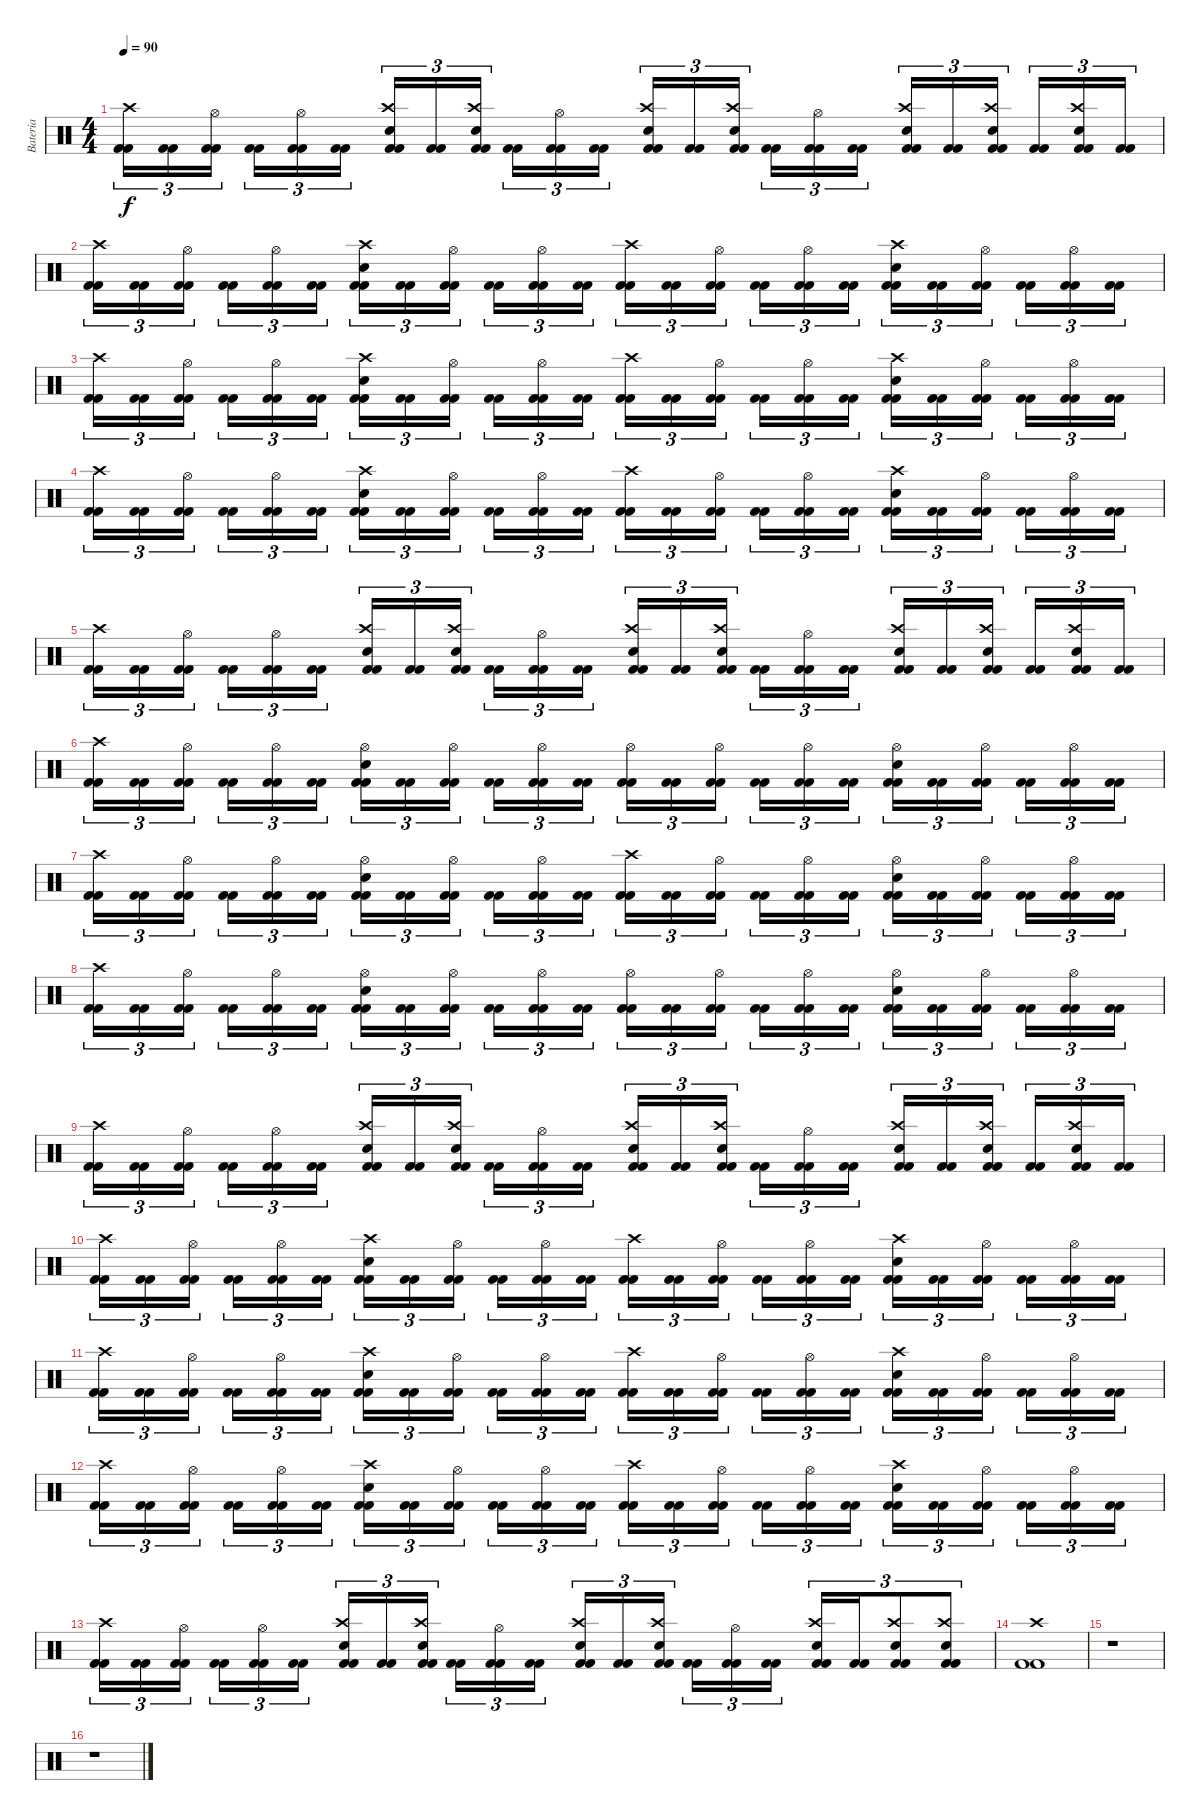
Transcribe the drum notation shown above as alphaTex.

\track ("Bateria" "Bateria") {instrument percussion}
\staff {score}
\articulation defaults
\ts (4 4)
\tempo 90
\clef neutral
\ks c
("Kick (hit) 2" "Kick (hit) 2" "Crash high (hit)").16{tu (3 2) dy f} ("Kick (hit) 2" "Kick (hit) 2").16{tu (3 2)} ("Kick (hit) 2" "Kick (hit) 2" "Hi-Hat (open)").16{tu (3 2)} ("Kick (hit) 2" "Kick (hit) 2").16{tu (3 2)} ("Kick (hit) 2" "Kick (hit) 2" "Hi-Hat (open)").16{tu (3 2)} ("Kick (hit) 2" "Kick (hit) 2").16{tu (3 2)} ("Kick (hit) 2" "Kick (hit) 2" "Snare (hit) 2" "Crash high (hit)").16{tu (3 2)} ("Kick (hit) 2" "Kick (hit) 2").16{tu (3 2)} ("Kick (hit) 2" "Kick (hit) 2" "Snare (hit) 2" "Crash high (hit)").16{tu (3 2)} ("Kick (hit) 2" "Kick (hit) 2").16{tu (3 2)} ("Kick (hit) 2" "Kick (hit) 2" "Hi-Hat (open)").16{tu (3 2)} ("Kick (hit) 2" "Kick (hit) 2").16{tu (3 2)} ("Kick (hit) 2" "Kick (hit) 2" "Snare (hit) 2" "Crash high (hit)").16{tu (3 2)} ("Kick (hit) 2" "Kick (hit) 2").16{tu (3 2)} ("Kick (hit) 2" "Kick (hit) 2" "Snare (hit) 2" "Crash high (hit)").16{tu (3 2)} ("Kick (hit) 2" "Kick (hit) 2").16{tu (3 2)} ("Kick (hit) 2" "Kick (hit) 2" "Hi-Hat (open)").16{tu (3 2)} ("Kick (hit) 2" "Kick (hit) 2").16{tu (3 2)} ("Kick (hit) 2" "Kick (hit) 2" "Snare (hit) 2" "Crash high (hit)").16{tu (3 2)} ("Kick (hit) 2" "Kick (hit) 2").16{tu (3 2)} ("Kick (hit) 2" "Kick (hit) 2" "Snare (hit) 2" "Crash high (hit)").16{tu (3 2)} ("Kick (hit) 2" "Kick (hit) 2").16{tu (3 2)} ("Kick (hit) 2" "Kick (hit) 2" "Snare (hit) 2" "Crash high (hit)").16{tu (3 2)} ("Kick (hit) 2" "Kick (hit) 2").16{tu (3 2)} |
("Kick (hit) 2" "Kick (hit) 2" "Crash high (hit)").16{tu (3 2)} ("Kick (hit) 2" "Kick (hit) 2").16{tu (3 2)} ("Kick (hit) 2" "Kick (hit) 2" "Hi-Hat (open)").16{tu (3 2)} ("Kick (hit) 2" "Kick (hit) 2").16{tu (3 2)} ("Kick (hit) 2" "Kick (hit) 2" "Hi-Hat (open)").16{tu (3 2)} ("Kick (hit) 2" "Kick (hit) 2").16{tu (3 2)} ("Kick (hit) 2" "Kick (hit) 2" "Snare (hit) 2" "Crash high (hit)").16{tu (3 2)} ("Kick (hit) 2" "Kick (hit) 2").16{tu (3 2)} ("Kick (hit) 2" "Kick (hit) 2" "Hi-Hat (open)").16{tu (3 2)} ("Kick (hit) 2" "Kick (hit) 2").16{tu (3 2)} ("Kick (hit) 2" "Kick (hit) 2" "Hi-Hat (open)").16{tu (3 2)} ("Kick (hit) 2" "Kick (hit) 2").16{tu (3 2)} ("Kick (hit) 2" "Kick (hit) 2" "Crash high (hit)").16{tu (3 2)} ("Kick (hit) 2" "Kick (hit) 2").16{tu (3 2)} ("Kick (hit) 2" "Kick (hit) 2" "Hi-Hat (open)").16{tu (3 2)} ("Kick (hit) 2" "Kick (hit) 2").16{tu (3 2)} ("Kick (hit) 2" "Kick (hit) 2" "Hi-Hat (open)").16{tu (3 2)} ("Kick (hit) 2" "Kick (hit) 2").16{tu (3 2)} ("Kick (hit) 2" "Kick (hit) 2" "Snare (hit) 2" "Crash high (hit)").16{tu (3 2)} ("Kick (hit) 2" "Kick (hit) 2").16{tu (3 2)} ("Kick (hit) 2" "Kick (hit) 2" "Hi-Hat (open)").16{tu (3 2)} ("Kick (hit) 2" "Kick (hit) 2").16{tu (3 2)} ("Kick (hit) 2" "Kick (hit) 2" "Hi-Hat (open)").16{tu (3 2)} ("Kick (hit) 2" "Kick (hit) 2").16{tu (3 2)} |
("Kick (hit) 2" "Kick (hit) 2" "Crash high (hit)").16{tu (3 2)} ("Kick (hit) 2" "Kick (hit) 2").16{tu (3 2)} ("Kick (hit) 2" "Kick (hit) 2" "Hi-Hat (open)").16{tu (3 2)} ("Kick (hit) 2" "Kick (hit) 2").16{tu (3 2)} ("Kick (hit) 2" "Kick (hit) 2" "Hi-Hat (open)").16{tu (3 2)} ("Kick (hit) 2" "Kick (hit) 2").16{tu (3 2)} ("Kick (hit) 2" "Kick (hit) 2" "Snare (hit) 2" "Crash high (hit)").16{tu (3 2)} ("Kick (hit) 2" "Kick (hit) 2").16{tu (3 2)} ("Kick (hit) 2" "Kick (hit) 2" "Hi-Hat (open)").16{tu (3 2)} ("Kick (hit) 2" "Kick (hit) 2").16{tu (3 2)} ("Kick (hit) 2" "Kick (hit) 2" "Hi-Hat (open)").16{tu (3 2)} ("Kick (hit) 2" "Kick (hit) 2").16{tu (3 2)} ("Kick (hit) 2" "Kick (hit) 2" "Crash high (hit)").16{tu (3 2)} ("Kick (hit) 2" "Kick (hit) 2").16{tu (3 2)} ("Kick (hit) 2" "Kick (hit) 2" "Hi-Hat (open)").16{tu (3 2)} ("Kick (hit) 2" "Kick (hit) 2").16{tu (3 2)} ("Kick (hit) 2" "Kick (hit) 2" "Hi-Hat (open)").16{tu (3 2)} ("Kick (hit) 2" "Kick (hit) 2").16{tu (3 2)} ("Kick (hit) 2" "Kick (hit) 2" "Snare (hit) 2" "Crash high (hit)").16{tu (3 2)} ("Kick (hit) 2" "Kick (hit) 2").16{tu (3 2)} ("Kick (hit) 2" "Kick (hit) 2" "Hi-Hat (open)").16{tu (3 2)} ("Kick (hit) 2" "Kick (hit) 2").16{tu (3 2)} ("Kick (hit) 2" "Kick (hit) 2" "Hi-Hat (open)").16{tu (3 2)} ("Kick (hit) 2" "Kick (hit) 2").16{tu (3 2)} |
("Kick (hit) 2" "Kick (hit) 2" "Crash high (hit)").16{tu (3 2)} ("Kick (hit) 2" "Kick (hit) 2").16{tu (3 2)} ("Kick (hit) 2" "Kick (hit) 2" "Hi-Hat (open)").16{tu (3 2)} ("Kick (hit) 2" "Kick (hit) 2").16{tu (3 2)} ("Kick (hit) 2" "Kick (hit) 2" "Hi-Hat (open)").16{tu (3 2)} ("Kick (hit) 2" "Kick (hit) 2").16{tu (3 2)} ("Kick (hit) 2" "Kick (hit) 2" "Snare (hit) 2" "Crash high (hit)").16{tu (3 2)} ("Kick (hit) 2" "Kick (hit) 2").16{tu (3 2)} ("Kick (hit) 2" "Kick (hit) 2" "Hi-Hat (open)").16{tu (3 2)} ("Kick (hit) 2" "Kick (hit) 2").16{tu (3 2)} ("Kick (hit) 2" "Kick (hit) 2" "Hi-Hat (open)").16{tu (3 2)} ("Kick (hit) 2" "Kick (hit) 2").16{tu (3 2)} ("Kick (hit) 2" "Kick (hit) 2" "Crash high (hit)").16{tu (3 2)} ("Kick (hit) 2" "Kick (hit) 2").16{tu (3 2)} ("Kick (hit) 2" "Kick (hit) 2" "Hi-Hat (open)").16{tu (3 2)} ("Kick (hit) 2" "Kick (hit) 2").16{tu (3 2)} ("Kick (hit) 2" "Kick (hit) 2" "Hi-Hat (open)").16{tu (3 2)} ("Kick (hit) 2" "Kick (hit) 2").16{tu (3 2)} ("Kick (hit) 2" "Kick (hit) 2" "Snare (hit) 2" "Crash high (hit)").16{tu (3 2)} ("Kick (hit) 2" "Kick (hit) 2").16{tu (3 2)} ("Kick (hit) 2" "Kick (hit) 2" "Hi-Hat (open)").16{tu (3 2)} ("Kick (hit) 2" "Kick (hit) 2").16{tu (3 2)} ("Kick (hit) 2" "Kick (hit) 2" "Hi-Hat (open)").16{tu (3 2)} ("Kick (hit) 2" "Kick (hit) 2").16{tu (3 2)} |
("Kick (hit) 2" "Kick (hit) 2" "Crash high (hit)").16{tu (3 2)} ("Kick (hit) 2" "Kick (hit) 2").16{tu (3 2)} ("Kick (hit) 2" "Kick (hit) 2" "Hi-Hat (open)").16{tu (3 2)} ("Kick (hit) 2" "Kick (hit) 2").16{tu (3 2)} ("Kick (hit) 2" "Kick (hit) 2" "Hi-Hat (open)").16{tu (3 2)} ("Kick (hit) 2" "Kick (hit) 2").16{tu (3 2)} ("Kick (hit) 2" "Kick (hit) 2" "Snare (hit) 2" "Crash high (hit)").16{tu (3 2)} ("Kick (hit) 2" "Kick (hit) 2").16{tu (3 2)} ("Kick (hit) 2" "Kick (hit) 2" "Snare (hit) 2" "Crash high (hit)").16{tu (3 2)} ("Kick (hit) 2" "Kick (hit) 2").16{tu (3 2)} ("Kick (hit) 2" "Kick (hit) 2" "Hi-Hat (open)").16{tu (3 2)} ("Kick (hit) 2" "Kick (hit) 2").16{tu (3 2)} ("Kick (hit) 2" "Kick (hit) 2" "Snare (hit) 2" "Crash high (hit)").16{tu (3 2)} ("Kick (hit) 2" "Kick (hit) 2").16{tu (3 2)} ("Kick (hit) 2" "Kick (hit) 2" "Snare (hit) 2" "Crash high (hit)").16{tu (3 2)} ("Kick (hit) 2" "Kick (hit) 2").16{tu (3 2)} ("Kick (hit) 2" "Kick (hit) 2" "Hi-Hat (open)").16{tu (3 2)} ("Kick (hit) 2" "Kick (hit) 2").16{tu (3 2)} ("Kick (hit) 2" "Kick (hit) 2" "Snare (hit) 2" "Crash high (hit)").16{tu (3 2)} ("Kick (hit) 2" "Kick (hit) 2").16{tu (3 2)} ("Kick (hit) 2" "Kick (hit) 2" "Snare (hit) 2" "Crash high (hit)").16{tu (3 2)} ("Kick (hit) 2" "Kick (hit) 2").16{tu (3 2)} ("Kick (hit) 2" "Kick (hit) 2" "Snare (hit) 2" "Crash high (hit)").16{tu (3 2)} ("Kick (hit) 2" "Kick (hit) 2").16{tu (3 2)} |
("Kick (hit) 2" "Kick (hit) 2" "Crash high (hit)").16{tu (3 2)} ("Kick (hit) 2" "Kick (hit) 2").16{tu (3 2)} ("Kick (hit) 2" "Kick (hit) 2" "Hi-Hat (open)").16{tu (3 2)} ("Kick (hit) 2" "Kick (hit) 2").16{tu (3 2)} ("Kick (hit) 2" "Kick (hit) 2" "Hi-Hat (open)").16{tu (3 2)} ("Kick (hit) 2" "Kick (hit) 2").16{tu (3 2)} ("Kick (hit) 2" "Kick (hit) 2" "Snare (hit) 2" "Hi-Hat (open)").16{tu (3 2)} ("Kick (hit) 2" "Kick (hit) 2").16{tu (3 2)} ("Kick (hit) 2" "Kick (hit) 2" "Hi-Hat (open)").16{tu (3 2)} ("Kick (hit) 2" "Kick (hit) 2").16{tu (3 2)} ("Kick (hit) 2" "Kick (hit) 2" "Hi-Hat (open)").16{tu (3 2)} ("Kick (hit) 2" "Kick (hit) 2").16{tu (3 2)} ("Kick (hit) 2" "Kick (hit) 2" "Hi-Hat (open)").16{tu (3 2)} ("Kick (hit) 2" "Kick (hit) 2").16{tu (3 2)} ("Kick (hit) 2" "Kick (hit) 2" "Hi-Hat (open)").16{tu (3 2)} ("Kick (hit) 2" "Kick (hit) 2").16{tu (3 2)} ("Kick (hit) 2" "Kick (hit) 2" "Hi-Hat (open)").16{tu (3 2)} ("Kick (hit) 2" "Kick (hit) 2").16{tu (3 2)} ("Kick (hit) 2" "Kick (hit) 2" "Snare (hit) 2" "Hi-Hat (open)").16{tu (3 2)} ("Kick (hit) 2" "Kick (hit) 2").16{tu (3 2)} ("Kick (hit) 2" "Kick (hit) 2" "Hi-Hat (open)").16{tu (3 2)} ("Kick (hit) 2" "Kick (hit) 2").16{tu (3 2)} ("Kick (hit) 2" "Kick (hit) 2" "Hi-Hat (open)").16{tu (3 2)} ("Kick (hit) 2" "Kick (hit) 2").16{tu (3 2)} |
("Kick (hit) 2" "Kick (hit) 2" "Crash high (hit)").16{tu (3 2)} ("Kick (hit) 2" "Kick (hit) 2").16{tu (3 2)} ("Kick (hit) 2" "Kick (hit) 2" "Hi-Hat (open)").16{tu (3 2)} ("Kick (hit) 2" "Kick (hit) 2").16{tu (3 2)} ("Kick (hit) 2" "Kick (hit) 2" "Hi-Hat (open)").16{tu (3 2)} ("Kick (hit) 2" "Kick (hit) 2").16{tu (3 2)} ("Kick (hit) 2" "Kick (hit) 2" "Snare (hit) 2" "Hi-Hat (open)").16{tu (3 2)} ("Kick (hit) 2" "Kick (hit) 2").16{tu (3 2)} ("Kick (hit) 2" "Kick (hit) 2" "Hi-Hat (open)").16{tu (3 2)} ("Kick (hit) 2" "Kick (hit) 2").16{tu (3 2)} ("Kick (hit) 2" "Kick (hit) 2" "Hi-Hat (open)").16{tu (3 2)} ("Kick (hit) 2" "Kick (hit) 2").16{tu (3 2)} ("Kick (hit) 2" "Kick (hit) 2" "Crash high (hit)").16{tu (3 2)} ("Kick (hit) 2" "Kick (hit) 2").16{tu (3 2)} ("Kick (hit) 2" "Kick (hit) 2" "Hi-Hat (open)").16{tu (3 2)} ("Kick (hit) 2" "Kick (hit) 2").16{tu (3 2)} ("Kick (hit) 2" "Kick (hit) 2" "Hi-Hat (open)").16{tu (3 2)} ("Kick (hit) 2" "Kick (hit) 2").16{tu (3 2)} ("Kick (hit) 2" "Kick (hit) 2" "Snare (hit) 2" "Hi-Hat (open)").16{tu (3 2)} ("Kick (hit) 2" "Kick (hit) 2").16{tu (3 2)} ("Kick (hit) 2" "Kick (hit) 2" "Hi-Hat (open)").16{tu (3 2)} ("Kick (hit) 2" "Kick (hit) 2").16{tu (3 2)} ("Kick (hit) 2" "Kick (hit) 2" "Hi-Hat (open)").16{tu (3 2)} ("Kick (hit) 2" "Kick (hit) 2").16{tu (3 2)} |
("Kick (hit) 2" "Kick (hit) 2" "Crash high (hit)").16{tu (3 2)} ("Kick (hit) 2" "Kick (hit) 2").16{tu (3 2)} ("Kick (hit) 2" "Kick (hit) 2" "Hi-Hat (open)").16{tu (3 2)} ("Kick (hit) 2" "Kick (hit) 2").16{tu (3 2)} ("Kick (hit) 2" "Kick (hit) 2" "Hi-Hat (open)").16{tu (3 2)} ("Kick (hit) 2" "Kick (hit) 2").16{tu (3 2)} ("Kick (hit) 2" "Kick (hit) 2" "Snare (hit) 2" "Hi-Hat (open)").16{tu (3 2)} ("Kick (hit) 2" "Kick (hit) 2").16{tu (3 2)} ("Kick (hit) 2" "Kick (hit) 2" "Hi-Hat (open)").16{tu (3 2)} ("Kick (hit) 2" "Kick (hit) 2").16{tu (3 2)} ("Kick (hit) 2" "Kick (hit) 2" "Hi-Hat (open)").16{tu (3 2)} ("Kick (hit) 2" "Kick (hit) 2").16{tu (3 2)} ("Kick (hit) 2" "Kick (hit) 2" "Hi-Hat (open)").16{tu (3 2)} ("Kick (hit) 2" "Kick (hit) 2").16{tu (3 2)} ("Kick (hit) 2" "Kick (hit) 2" "Hi-Hat (open)").16{tu (3 2)} ("Kick (hit) 2" "Kick (hit) 2").16{tu (3 2)} ("Kick (hit) 2" "Kick (hit) 2" "Hi-Hat (open)").16{tu (3 2)} ("Kick (hit) 2" "Kick (hit) 2").16{tu (3 2)} ("Kick (hit) 2" "Kick (hit) 2" "Snare (hit) 2" "Hi-Hat (open)").16{tu (3 2)} ("Kick (hit) 2" "Kick (hit) 2").16{tu (3 2)} ("Kick (hit) 2" "Kick (hit) 2" "Hi-Hat (open)").16{tu (3 2)} ("Kick (hit) 2" "Kick (hit) 2").16{tu (3 2)} ("Kick (hit) 2" "Kick (hit) 2" "Hi-Hat (open)").16{tu (3 2)} ("Kick (hit) 2" "Kick (hit) 2").16{tu (3 2)} |
("Kick (hit) 2" "Kick (hit) 2" "Crash high (hit)").16{tu (3 2)} ("Kick (hit) 2" "Kick (hit) 2").16{tu (3 2)} ("Kick (hit) 2" "Kick (hit) 2" "Hi-Hat (open)").16{tu (3 2)} ("Kick (hit) 2" "Kick (hit) 2").16{tu (3 2)} ("Kick (hit) 2" "Kick (hit) 2" "Hi-Hat (open)").16{tu (3 2)} ("Kick (hit) 2" "Kick (hit) 2").16{tu (3 2)} ("Kick (hit) 2" "Kick (hit) 2" "Snare (hit) 2" "Crash high (hit)").16{tu (3 2)} ("Kick (hit) 2" "Kick (hit) 2").16{tu (3 2)} ("Kick (hit) 2" "Kick (hit) 2" "Snare (hit) 2" "Crash high (hit)").16{tu (3 2)} ("Kick (hit) 2" "Kick (hit) 2").16{tu (3 2)} ("Kick (hit) 2" "Kick (hit) 2" "Hi-Hat (open)").16{tu (3 2)} ("Kick (hit) 2" "Kick (hit) 2").16{tu (3 2)} ("Kick (hit) 2" "Kick (hit) 2" "Snare (hit) 2" "Crash high (hit)").16{tu (3 2)} ("Kick (hit) 2" "Kick (hit) 2").16{tu (3 2)} ("Kick (hit) 2" "Kick (hit) 2" "Snare (hit) 2" "Crash high (hit)").16{tu (3 2)} ("Kick (hit) 2" "Kick (hit) 2").16{tu (3 2)} ("Kick (hit) 2" "Kick (hit) 2" "Hi-Hat (open)").16{tu (3 2)} ("Kick (hit) 2" "Kick (hit) 2").16{tu (3 2)} ("Kick (hit) 2" "Kick (hit) 2" "Snare (hit) 2" "Crash high (hit)").16{tu (3 2)} ("Kick (hit) 2" "Kick (hit) 2").16{tu (3 2)} ("Kick (hit) 2" "Kick (hit) 2" "Snare (hit) 2" "Crash high (hit)").16{tu (3 2)} ("Kick (hit) 2" "Kick (hit) 2").16{tu (3 2)} ("Kick (hit) 2" "Kick (hit) 2" "Snare (hit) 2" "Crash high (hit)").16{tu (3 2)} ("Kick (hit) 2" "Kick (hit) 2").16{tu (3 2)} |
("Kick (hit) 2" "Kick (hit) 2" "Crash high (hit)").16{tu (3 2)} ("Kick (hit) 2" "Kick (hit) 2").16{tu (3 2)} ("Kick (hit) 2" "Kick (hit) 2" "Hi-Hat (open)").16{tu (3 2)} ("Kick (hit) 2" "Kick (hit) 2").16{tu (3 2)} ("Kick (hit) 2" "Kick (hit) 2" "Hi-Hat (open)").16{tu (3 2)} ("Kick (hit) 2" "Kick (hit) 2").16{tu (3 2)} ("Kick (hit) 2" "Kick (hit) 2" "Snare (hit) 2" "Crash high (hit)").16{tu (3 2)} ("Kick (hit) 2" "Kick (hit) 2").16{tu (3 2)} ("Kick (hit) 2" "Kick (hit) 2" "Hi-Hat (open)").16{tu (3 2)} ("Kick (hit) 2" "Kick (hit) 2").16{tu (3 2)} ("Kick (hit) 2" "Kick (hit) 2" "Hi-Hat (open)").16{tu (3 2)} ("Kick (hit) 2" "Kick (hit) 2").16{tu (3 2)} ("Kick (hit) 2" "Kick (hit) 2" "Crash high (hit)").16{tu (3 2)} ("Kick (hit) 2" "Kick (hit) 2").16{tu (3 2)} ("Kick (hit) 2" "Kick (hit) 2" "Hi-Hat (open)").16{tu (3 2)} ("Kick (hit) 2" "Kick (hit) 2").16{tu (3 2)} ("Kick (hit) 2" "Kick (hit) 2" "Hi-Hat (open)").16{tu (3 2)} ("Kick (hit) 2" "Kick (hit) 2").16{tu (3 2)} ("Kick (hit) 2" "Kick (hit) 2" "Snare (hit) 2" "Crash high (hit)").16{tu (3 2)} ("Kick (hit) 2" "Kick (hit) 2").16{tu (3 2)} ("Kick (hit) 2" "Kick (hit) 2" "Hi-Hat (open)").16{tu (3 2)} ("Kick (hit) 2" "Kick (hit) 2").16{tu (3 2)} ("Kick (hit) 2" "Kick (hit) 2" "Hi-Hat (open)").16{tu (3 2)} ("Kick (hit) 2" "Kick (hit) 2").16{tu (3 2)} |
("Kick (hit) 2" "Kick (hit) 2" "Crash high (hit)").16{tu (3 2)} ("Kick (hit) 2" "Kick (hit) 2").16{tu (3 2)} ("Kick (hit) 2" "Kick (hit) 2" "Hi-Hat (open)").16{tu (3 2)} ("Kick (hit) 2" "Kick (hit) 2").16{tu (3 2)} ("Kick (hit) 2" "Kick (hit) 2" "Hi-Hat (open)").16{tu (3 2)} ("Kick (hit) 2" "Kick (hit) 2").16{tu (3 2)} ("Kick (hit) 2" "Kick (hit) 2" "Snare (hit) 2" "Crash high (hit)").16{tu (3 2)} ("Kick (hit) 2" "Kick (hit) 2").16{tu (3 2)} ("Kick (hit) 2" "Kick (hit) 2" "Hi-Hat (open)").16{tu (3 2)} ("Kick (hit) 2" "Kick (hit) 2").16{tu (3 2)} ("Kick (hit) 2" "Kick (hit) 2" "Hi-Hat (open)").16{tu (3 2)} ("Kick (hit) 2" "Kick (hit) 2").16{tu (3 2)} ("Kick (hit) 2" "Kick (hit) 2" "Crash high (hit)").16{tu (3 2)} ("Kick (hit) 2" "Kick (hit) 2").16{tu (3 2)} ("Kick (hit) 2" "Kick (hit) 2" "Hi-Hat (open)").16{tu (3 2)} ("Kick (hit) 2" "Kick (hit) 2").16{tu (3 2)} ("Kick (hit) 2" "Kick (hit) 2" "Hi-Hat (open)").16{tu (3 2)} ("Kick (hit) 2" "Kick (hit) 2").16{tu (3 2)} ("Kick (hit) 2" "Kick (hit) 2" "Snare (hit) 2" "Crash high (hit)").16{tu (3 2)} ("Kick (hit) 2" "Kick (hit) 2").16{tu (3 2)} ("Kick (hit) 2" "Kick (hit) 2" "Hi-Hat (open)").16{tu (3 2)} ("Kick (hit) 2" "Kick (hit) 2").16{tu (3 2)} ("Kick (hit) 2" "Kick (hit) 2" "Hi-Hat (open)").16{tu (3 2)} ("Kick (hit) 2" "Kick (hit) 2").16{tu (3 2)} |
("Kick (hit) 2" "Kick (hit) 2" "Crash high (hit)").16{tu (3 2)} ("Kick (hit) 2" "Kick (hit) 2").16{tu (3 2)} ("Kick (hit) 2" "Kick (hit) 2" "Hi-Hat (open)").16{tu (3 2)} ("Kick (hit) 2" "Kick (hit) 2").16{tu (3 2)} ("Kick (hit) 2" "Kick (hit) 2" "Hi-Hat (open)").16{tu (3 2)} ("Kick (hit) 2" "Kick (hit) 2").16{tu (3 2)} ("Kick (hit) 2" "Kick (hit) 2" "Snare (hit) 2" "Crash high (hit)").16{tu (3 2)} ("Kick (hit) 2" "Kick (hit) 2").16{tu (3 2)} ("Kick (hit) 2" "Kick (hit) 2" "Hi-Hat (open)").16{tu (3 2)} ("Kick (hit) 2" "Kick (hit) 2").16{tu (3 2)} ("Kick (hit) 2" "Kick (hit) 2" "Hi-Hat (open)").16{tu (3 2)} ("Kick (hit) 2" "Kick (hit) 2").16{tu (3 2)} ("Kick (hit) 2" "Kick (hit) 2" "Crash high (hit)").16{tu (3 2)} ("Kick (hit) 2" "Kick (hit) 2").16{tu (3 2)} ("Kick (hit) 2" "Kick (hit) 2" "Hi-Hat (open)").16{tu (3 2)} ("Kick (hit) 2" "Kick (hit) 2").16{tu (3 2)} ("Kick (hit) 2" "Kick (hit) 2" "Hi-Hat (open)").16{tu (3 2)} ("Kick (hit) 2" "Kick (hit) 2").16{tu (3 2)} ("Kick (hit) 2" "Kick (hit) 2" "Snare (hit) 2" "Crash high (hit)").16{tu (3 2)} ("Kick (hit) 2" "Kick (hit) 2").16{tu (3 2)} ("Kick (hit) 2" "Kick (hit) 2" "Hi-Hat (open)").16{tu (3 2)} ("Kick (hit) 2" "Kick (hit) 2").16{tu (3 2)} ("Kick (hit) 2" "Kick (hit) 2" "Hi-Hat (open)").16{tu (3 2)} ("Kick (hit) 2" "Kick (hit) 2").16{tu (3 2)} |
("Kick (hit) 2" "Kick (hit) 2" "Crash high (hit)").16{tu (3 2)} ("Kick (hit) 2" "Kick (hit) 2").16{tu (3 2)} ("Kick (hit) 2" "Kick (hit) 2" "Hi-Hat (open)").16{tu (3 2)} ("Kick (hit) 2" "Kick (hit) 2").16{tu (3 2)} ("Kick (hit) 2" "Kick (hit) 2" "Hi-Hat (open)").16{tu (3 2)} ("Kick (hit) 2" "Kick (hit) 2").16{tu (3 2)} ("Kick (hit) 2" "Kick (hit) 2" "Snare (hit) 2" "Crash high (hit)").16{tu (3 2)} ("Kick (hit) 2" "Kick (hit) 2").16{tu (3 2)} ("Kick (hit) 2" "Kick (hit) 2" "Snare (hit) 2" "Crash high (hit)").16{tu (3 2)} ("Kick (hit) 2" "Kick (hit) 2").16{tu (3 2)} ("Kick (hit) 2" "Kick (hit) 2" "Hi-Hat (open)").16{tu (3 2)} ("Kick (hit) 2" "Kick (hit) 2").16{tu (3 2)} ("Kick (hit) 2" "Kick (hit) 2" "Snare (hit) 2" "Crash high (hit)").16{tu (3 2)} ("Kick (hit) 2" "Kick (hit) 2").16{tu (3 2)} ("Kick (hit) 2" "Kick (hit) 2" "Snare (hit) 2" "Crash high (hit)").16{tu (3 2)} ("Kick (hit) 2" "Kick (hit) 2").16{tu (3 2)} ("Kick (hit) 2" "Kick (hit) 2" "Hi-Hat (open)").16{tu (3 2)} ("Kick (hit) 2" "Kick (hit) 2").16{tu (3 2)} ("Kick (hit) 2" "Kick (hit) 2" "Snare (hit) 2" "Crash high (hit)").16{tu (3 2)} ("Kick (hit) 2" "Kick (hit) 2").16{tu (3 2)} ("Kick (hit) 2" "Kick (hit) 2" "Snare (hit) 2" "Crash high (hit)").8{tu (3 2)} ("Kick (hit) 2" "Kick (hit) 2" "Snare (hit) 2" "Crash high (hit)").8{tu (3 2)} |
("Kick (hit) 2" "Kick (hit) 2" "Crash high (hit)").1 |
r.1 |
r.1
